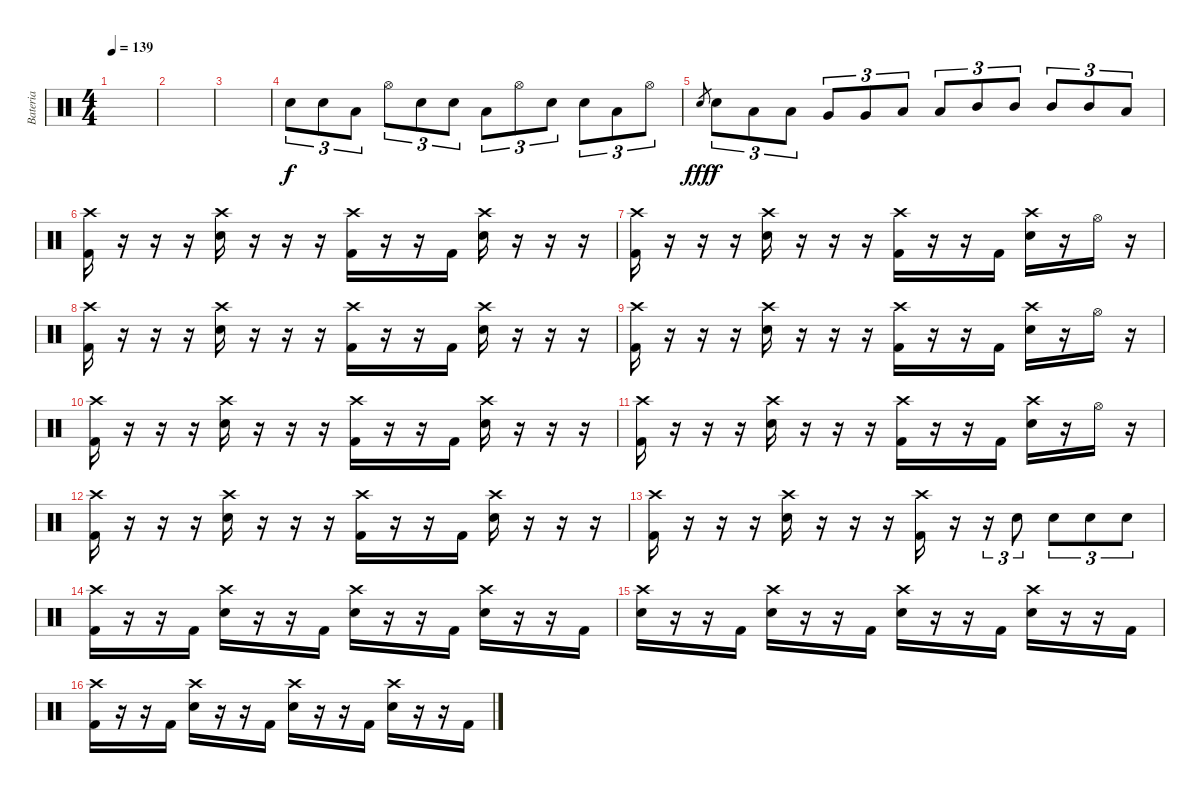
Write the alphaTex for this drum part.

\track ("Bateria" "Bateria") {instrument percussion}
\staff {score}
\articulation defaults
\ts (4 4)
\tempo 139
\clef neutral
\ks c
|
|
|
"Electric Snare (hit)".8{tu (3 2)} "Electric Snare (hit)".8{tu (3 2)} "Low Tom (hit)".8{tu (3 2)} "Hi-Hat (open)".8{tu (3 2)} "Electric Snare (hit)".8{tu (3 2)} "Electric Snare (hit)".8{tu (3 2)} "Low Tom (hit)".8{tu (3 2)} "Hi-Hat (open)".8{tu (3 2)} "Electric Snare (hit)".8{tu (3 2)} "Electric Snare (hit)".8{tu (3 2)} "Low Tom (hit)".8{tu (3 2)} "Hi-Hat (open)".8{tu (3 2)} |
"Electric Snare (hit)".8{gr dy fff} "Electric Snare (hit)".8{tu (3 2) dy f} "Low Tom (hit)".8{tu (3 2)} "Low Tom (hit)".8{tu (3 2)} "Very Low Tom (hit)".8{tu (3 2)} "Very Low Tom (hit)".8{tu (3 2)} "Low Floor Tom (hit)".8{tu (3 2)} "Low Floor Tom (hit)".8{tu (3 2)} "Mid Tom (hit)".8{tu (3 2)} "Mid Tom (hit)".8{tu (3 2)} "Mid Tom (hit)".8{tu (3 2)} "Mid Tom (hit)".8{tu (3 2)} "Low Tom (hit)".8{tu (3 2)} |
("Crash high (hit)" "Kick (hit) 2").16 r.16 r.16 r.16 ("Crash high (hit)" "Electric Snare (hit)").16 r.16 r.16 r.16 ("Crash high (hit)" "Kick (hit) 2").16 r.16 r.16 "Kick (hit) 2".16 ("Crash high (hit)" "Electric Snare (hit)").16 r.16 r.16 r.16 |
("Crash high (hit)" "Kick (hit) 2").16 r.16 r.16 r.16 ("Crash high (hit)" "Electric Snare (hit)").16 r.16 r.16 r.16 ("Crash high (hit)" "Kick (hit) 2").16 r.16 r.16 "Kick (hit) 2".16 ("Crash high (hit)" "Electric Snare (hit)").16 r.16 "Hi-Hat (open)".16 r.16 |
("Crash high (hit)" "Kick (hit) 2").16 r.16 r.16 r.16 ("Crash high (hit)" "Electric Snare (hit)").16 r.16 r.16 r.16 ("Crash high (hit)" "Kick (hit) 2").16 r.16 r.16 "Kick (hit) 2".16 ("Crash high (hit)" "Electric Snare (hit)").16 r.16 r.16 r.16 |
("Crash high (hit)" "Kick (hit) 2").16 r.16 r.16 r.16 ("Crash high (hit)" "Electric Snare (hit)").16 r.16 r.16 r.16 ("Crash high (hit)" "Kick (hit) 2").16 r.16 r.16 "Kick (hit) 2".16 ("Crash high (hit)" "Electric Snare (hit)").16 r.16 "Hi-Hat (open)".16 r.16 |
("Crash high (hit)" "Kick (hit) 2").16 r.16 r.16 r.16 ("Crash high (hit)" "Electric Snare (hit)").16 r.16 r.16 r.16 ("Crash high (hit)" "Kick (hit) 2").16 r.16 r.16 "Kick (hit) 2".16 ("Crash high (hit)" "Electric Snare (hit)").16 r.16 r.16 r.16 |
("Crash high (hit)" "Kick (hit) 2").16 r.16 r.16 r.16 ("Crash high (hit)" "Electric Snare (hit)").16 r.16 r.16 r.16 ("Crash high (hit)" "Kick (hit) 2").16 r.16 r.16 "Kick (hit) 2".16 ("Crash high (hit)" "Electric Snare (hit)").16 r.16 "Hi-Hat (open)".16 r.16 |
("Crash high (hit)" "Kick (hit) 2").16 r.16 r.16 r.16 ("Crash high (hit)" "Electric Snare (hit)").16 r.16 r.16 r.16 ("Crash high (hit)" "Kick (hit) 2").16 r.16 r.16 "Kick (hit) 2".16 ("Crash high (hit)" "Electric Snare (hit)").16 r.16 r.16 r.16 |
("Crash high (hit)" "Kick (hit) 2").16 r.16 r.16 r.16 ("Crash high (hit)" "Electric Snare (hit)").16 r.16 r.16 r.16 ("Crash high (hit)" "Kick (hit) 2").16 r.16 r.16{tu (3 2)} "Electric Snare (hit)".8{tu (3 2)} "Electric Snare (hit)".8{tu (3 2)} "Electric Snare (hit)".8{tu (3 2)} "Electric Snare (hit)".8{tu (3 2)} |
("Crash high (hit)" "Kick (hit) 2").16 r.16 r.16 "Kick (hit) 2".16 ("Crash high (hit)" "Electric Snare (hit)").16 r.16 r.16 "Kick (hit) 2".16 ("Crash high (hit)" "Electric Snare (hit)").16 r.16 r.16 "Kick (hit) 2".16 ("Crash high (hit)" "Electric Snare (hit)").16 r.16 r.16 "Kick (hit) 2".16 |
("Crash high (hit)" "Electric Snare (hit)").16 r.16 r.16 "Kick (hit) 2".16 ("Crash high (hit)" "Electric Snare (hit)").16 r.16 r.16 "Kick (hit) 2".16 ("Crash high (hit)" "Electric Snare (hit)").16 r.16 r.16 "Kick (hit) 2".16 ("Crash high (hit)" "Electric Snare (hit)").16 r.16 r.16 "Kick (hit) 2".16 |
("Crash high (hit)" "Kick (hit) 2").16 r.16 r.16 "Kick (hit) 2".16 ("Crash high (hit)" "Electric Snare (hit)").16 r.16 r.16 "Kick (hit) 2".16 ("Crash high (hit)" "Electric Snare (hit)").16 r.16 r.16 "Kick (hit) 2".16 ("Crash high (hit)" "Electric Snare (hit)").16 r.16 r.16 "Kick (hit) 2".16
